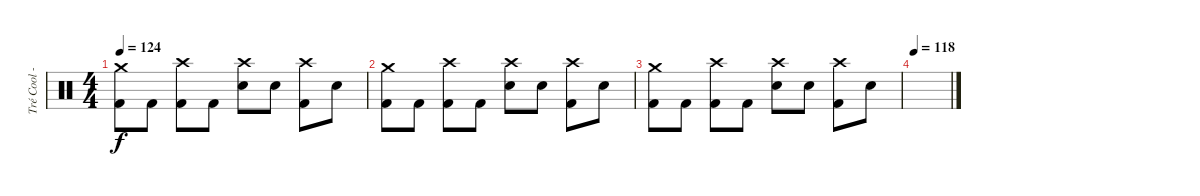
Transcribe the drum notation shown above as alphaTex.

\track ("Tré Cool - Drums" "Tré Cool -") {instrument percussion}
\staff {score}
\articulation defaults
\ts (4 4)
\tempo 124
\clef neutral
\ks c
("Crash medium (hit)" "Kick (hit) 2").8{dy f} "Kick (hit) 2".8 ("Crash high (hit)" "Kick (hit) 2").8 "Kick (hit) 2".8 ("Crash high (hit)" "Electric Snare (hit)").8 "Electric Snare (hit)".8 ("Crash high (hit)" "Kick (hit) 2").8 "Electric Snare (hit)".8 |
("Crash medium (hit)" "Kick (hit) 2").8 "Kick (hit) 2".8 ("Crash high (hit)" "Kick (hit) 2").8 "Kick (hit) 2".8 ("Crash high (hit)" "Electric Snare (hit)").8 "Electric Snare (hit)".8 ("Crash high (hit)" "Kick (hit) 2").8 "Electric Snare (hit)".8 |
("Crash medium (hit)" "Kick (hit) 2").8 "Kick (hit) 2".8 ("Crash high (hit)" "Kick (hit) 2").8 "Kick (hit) 2".8 ("Crash high (hit)" "Electric Snare (hit)").8 "Electric Snare (hit)".8 ("Crash high (hit)" "Kick (hit) 2").8 "Electric Snare (hit)".8 |
\tempo 118
